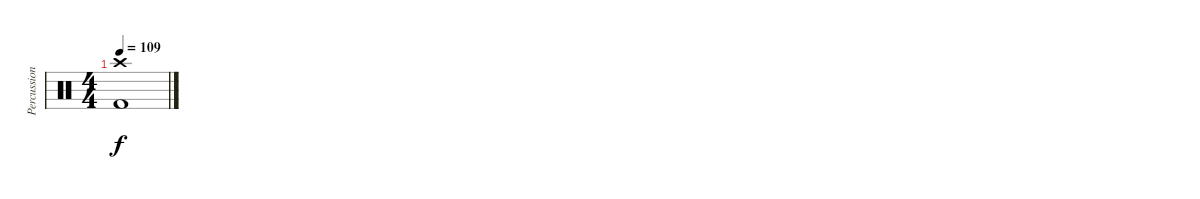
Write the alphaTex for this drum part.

\track ("Percussion" "Percussion") {instrument percussion}
\staff {score}
\articulation defaults
\ts (4 4)
\tempo 109
\clef neutral
\ks c
("Crash high (hit)" "Kick (hit) 2").1{dy f}
